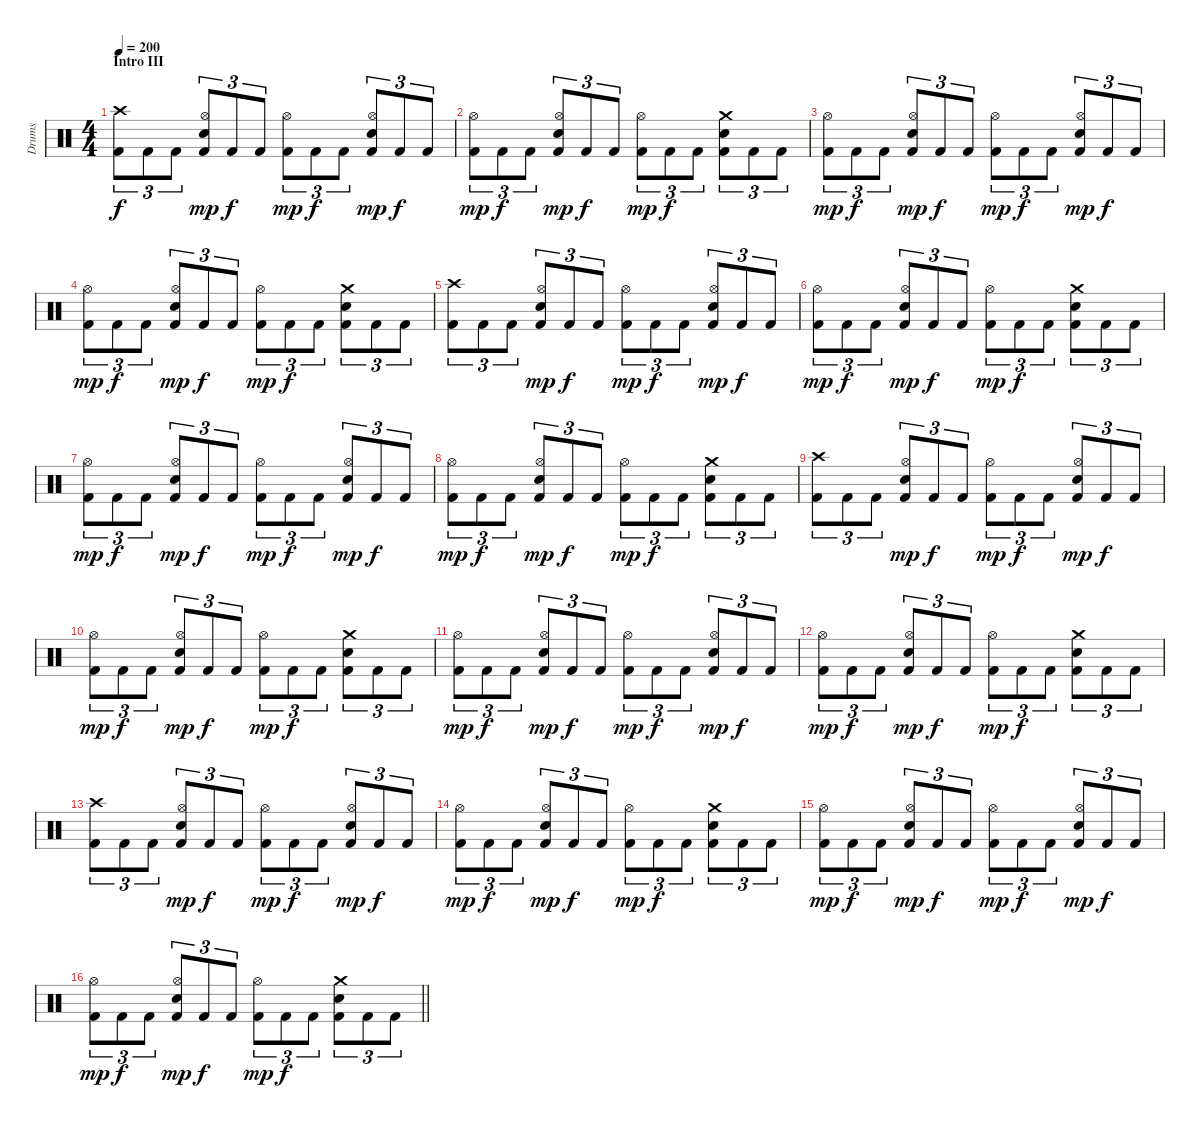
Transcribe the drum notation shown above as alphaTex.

\track ("Drums" "Drums") {instrument percussion}
\staff {score}
\articulation defaults
\ts (4 4)
\section ("" "Intro III")
\tempo 200
\clef neutral
\ks c
("Crash high (hit)" "Kick (hit) 2").8{tu (3 2) dy f} "Kick (hit) 2".8{tu (3 2)} "Kick (hit) 2".8{tu (3 2)} ("Hi-Hat (open)" "Snare (hit) 2" "Kick (hit) 2").8{tu (3 2) dy mp} "Kick (hit) 2".8{tu (3 2) dy f} "Kick (hit) 2".8{tu (3 2)} ("Hi-Hat (open)" "Kick (hit) 2").8{tu (3 2) dy mp} "Kick (hit) 2".8{tu (3 2) dy f} "Kick (hit) 2".8{tu (3 2)} ("Hi-Hat (open)" "Snare (hit) 2" "Kick (hit) 2").8{tu (3 2) dy mp} "Kick (hit) 2".8{tu (3 2) dy f} "Kick (hit) 2".8{tu (3 2)} |
("Hi-Hat (open)" "Kick (hit) 2").8{tu (3 2) dy mp} "Kick (hit) 2".8{tu (3 2) dy f} "Kick (hit) 2".8{tu (3 2)} ("Hi-Hat (open)" "Snare (hit) 2" "Kick (hit) 2").8{tu (3 2) dy mp} "Kick (hit) 2".8{tu (3 2) dy f} "Kick (hit) 2".8{tu (3 2)} ("Hi-Hat (open)" "Kick (hit) 2").8{tu (3 2) dy mp} "Kick (hit) 2".8{tu (3 2) dy f} "Kick (hit) 2".8{tu (3 2)} ("Crash medium (hit)" "Snare (hit) 2" "Kick (hit) 2").8{tu (3 2)} "Kick (hit) 2".8{tu (3 2)} "Kick (hit) 2".8{tu (3 2)} |
("Hi-Hat (open)" "Kick (hit) 2").8{tu (3 2) dy mp} "Kick (hit) 2".8{tu (3 2) dy f} "Kick (hit) 2".8{tu (3 2)} ("Hi-Hat (open)" "Snare (hit) 2" "Kick (hit) 2").8{tu (3 2) dy mp} "Kick (hit) 2".8{tu (3 2) dy f} "Kick (hit) 2".8{tu (3 2)} ("Hi-Hat (open)" "Kick (hit) 2").8{tu (3 2) dy mp} "Kick (hit) 2".8{tu (3 2) dy f} "Kick (hit) 2".8{tu (3 2)} ("Hi-Hat (open)" "Snare (hit) 2" "Kick (hit) 2").8{tu (3 2) dy mp} "Kick (hit) 2".8{tu (3 2) dy f} "Kick (hit) 2".8{tu (3 2)} |
("Hi-Hat (open)" "Kick (hit) 2").8{tu (3 2) dy mp} "Kick (hit) 2".8{tu (3 2) dy f} "Kick (hit) 2".8{tu (3 2)} ("Hi-Hat (open)" "Snare (hit) 2" "Kick (hit) 2").8{tu (3 2) dy mp} "Kick (hit) 2".8{tu (3 2) dy f} "Kick (hit) 2".8{tu (3 2)} ("Hi-Hat (open)" "Kick (hit) 2").8{tu (3 2) dy mp} "Kick (hit) 2".8{tu (3 2) dy f} "Kick (hit) 2".8{tu (3 2)} ("Crash medium (hit)" "Snare (hit) 2" "Kick (hit) 2").8{tu (3 2)} "Kick (hit) 2".8{tu (3 2)} "Kick (hit) 2".8{tu (3 2)} |
("Crash high (hit)" "Kick (hit) 2").8{tu (3 2)} "Kick (hit) 2".8{tu (3 2)} "Kick (hit) 2".8{tu (3 2)} ("Hi-Hat (open)" "Snare (hit) 2" "Kick (hit) 2").8{tu (3 2) dy mp} "Kick (hit) 2".8{tu (3 2) dy f} "Kick (hit) 2".8{tu (3 2)} ("Hi-Hat (open)" "Kick (hit) 2").8{tu (3 2) dy mp} "Kick (hit) 2".8{tu (3 2) dy f} "Kick (hit) 2".8{tu (3 2)} ("Hi-Hat (open)" "Snare (hit) 2" "Kick (hit) 2").8{tu (3 2) dy mp} "Kick (hit) 2".8{tu (3 2) dy f} "Kick (hit) 2".8{tu (3 2)} |
("Hi-Hat (open)" "Kick (hit) 2").8{tu (3 2) dy mp} "Kick (hit) 2".8{tu (3 2) dy f} "Kick (hit) 2".8{tu (3 2)} ("Hi-Hat (open)" "Snare (hit) 2" "Kick (hit) 2").8{tu (3 2) dy mp} "Kick (hit) 2".8{tu (3 2) dy f} "Kick (hit) 2".8{tu (3 2)} ("Hi-Hat (open)" "Kick (hit) 2").8{tu (3 2) dy mp} "Kick (hit) 2".8{tu (3 2) dy f} "Kick (hit) 2".8{tu (3 2)} ("Crash medium (hit)" "Snare (hit) 2" "Kick (hit) 2").8{tu (3 2)} "Kick (hit) 2".8{tu (3 2)} "Kick (hit) 2".8{tu (3 2)} |
("Hi-Hat (open)" "Kick (hit) 2").8{tu (3 2) dy mp} "Kick (hit) 2".8{tu (3 2) dy f} "Kick (hit) 2".8{tu (3 2)} ("Hi-Hat (open)" "Snare (hit) 2" "Kick (hit) 2").8{tu (3 2) dy mp} "Kick (hit) 2".8{tu (3 2) dy f} "Kick (hit) 2".8{tu (3 2)} ("Hi-Hat (open)" "Kick (hit) 2").8{tu (3 2) dy mp} "Kick (hit) 2".8{tu (3 2) dy f} "Kick (hit) 2".8{tu (3 2)} ("Hi-Hat (open)" "Snare (hit) 2" "Kick (hit) 2").8{tu (3 2) dy mp} "Kick (hit) 2".8{tu (3 2) dy f} "Kick (hit) 2".8{tu (3 2)} |
("Hi-Hat (open)" "Kick (hit) 2").8{tu (3 2) dy mp} "Kick (hit) 2".8{tu (3 2) dy f} "Kick (hit) 2".8{tu (3 2)} ("Hi-Hat (open)" "Snare (hit) 2" "Kick (hit) 2").8{tu (3 2) dy mp} "Kick (hit) 2".8{tu (3 2) dy f} "Kick (hit) 2".8{tu (3 2)} ("Hi-Hat (open)" "Kick (hit) 2").8{tu (3 2) dy mp} "Kick (hit) 2".8{tu (3 2) dy f} "Kick (hit) 2".8{tu (3 2)} ("Crash medium (hit)" "Snare (hit) 2" "Kick (hit) 2").8{tu (3 2)} "Kick (hit) 2".8{tu (3 2)} "Kick (hit) 2".8{tu (3 2)} |
("Crash high (hit)" "Kick (hit) 2").8{tu (3 2)} "Kick (hit) 2".8{tu (3 2)} "Kick (hit) 2".8{tu (3 2)} ("Hi-Hat (open)" "Snare (hit) 2" "Kick (hit) 2").8{tu (3 2) dy mp} "Kick (hit) 2".8{tu (3 2) dy f} "Kick (hit) 2".8{tu (3 2)} ("Hi-Hat (open)" "Kick (hit) 2").8{tu (3 2) dy mp} "Kick (hit) 2".8{tu (3 2) dy f} "Kick (hit) 2".8{tu (3 2)} ("Hi-Hat (open)" "Snare (hit) 2" "Kick (hit) 2").8{tu (3 2) dy mp} "Kick (hit) 2".8{tu (3 2) dy f} "Kick (hit) 2".8{tu (3 2)} |
("Hi-Hat (open)" "Kick (hit) 2").8{tu (3 2) dy mp} "Kick (hit) 2".8{tu (3 2) dy f} "Kick (hit) 2".8{tu (3 2)} ("Hi-Hat (open)" "Snare (hit) 2" "Kick (hit) 2").8{tu (3 2) dy mp} "Kick (hit) 2".8{tu (3 2) dy f} "Kick (hit) 2".8{tu (3 2)} ("Hi-Hat (open)" "Kick (hit) 2").8{tu (3 2) dy mp} "Kick (hit) 2".8{tu (3 2) dy f} "Kick (hit) 2".8{tu (3 2)} ("Crash medium (hit)" "Snare (hit) 2" "Kick (hit) 2").8{tu (3 2)} "Kick (hit) 2".8{tu (3 2)} "Kick (hit) 2".8{tu (3 2)} |
("Hi-Hat (open)" "Kick (hit) 2").8{tu (3 2) dy mp} "Kick (hit) 2".8{tu (3 2) dy f} "Kick (hit) 2".8{tu (3 2)} ("Hi-Hat (open)" "Snare (hit) 2" "Kick (hit) 2").8{tu (3 2) dy mp} "Kick (hit) 2".8{tu (3 2) dy f} "Kick (hit) 2".8{tu (3 2)} ("Hi-Hat (open)" "Kick (hit) 2").8{tu (3 2) dy mp} "Kick (hit) 2".8{tu (3 2) dy f} "Kick (hit) 2".8{tu (3 2)} ("Hi-Hat (open)" "Snare (hit) 2" "Kick (hit) 2").8{tu (3 2) dy mp} "Kick (hit) 2".8{tu (3 2) dy f} "Kick (hit) 2".8{tu (3 2)} |
("Hi-Hat (open)" "Kick (hit) 2").8{tu (3 2) dy mp} "Kick (hit) 2".8{tu (3 2) dy f} "Kick (hit) 2".8{tu (3 2)} ("Hi-Hat (open)" "Snare (hit) 2" "Kick (hit) 2").8{tu (3 2) dy mp} "Kick (hit) 2".8{tu (3 2) dy f} "Kick (hit) 2".8{tu (3 2)} ("Hi-Hat (open)" "Kick (hit) 2").8{tu (3 2) dy mp} "Kick (hit) 2".8{tu (3 2) dy f} "Kick (hit) 2".8{tu (3 2)} ("Crash medium (hit)" "Snare (hit) 2" "Kick (hit) 2").8{tu (3 2)} "Kick (hit) 2".8{tu (3 2)} "Kick (hit) 2".8{tu (3 2)} |
("Crash high (hit)" "Kick (hit) 2").8{tu (3 2)} "Kick (hit) 2".8{tu (3 2)} "Kick (hit) 2".8{tu (3 2)} ("Hi-Hat (open)" "Snare (hit) 2" "Kick (hit) 2").8{tu (3 2) dy mp} "Kick (hit) 2".8{tu (3 2) dy f} "Kick (hit) 2".8{tu (3 2)} ("Hi-Hat (open)" "Kick (hit) 2").8{tu (3 2) dy mp} "Kick (hit) 2".8{tu (3 2) dy f} "Kick (hit) 2".8{tu (3 2)} ("Hi-Hat (open)" "Snare (hit) 2" "Kick (hit) 2").8{tu (3 2) dy mp} "Kick (hit) 2".8{tu (3 2) dy f} "Kick (hit) 2".8{tu (3 2)} |
("Hi-Hat (open)" "Kick (hit) 2").8{tu (3 2) dy mp} "Kick (hit) 2".8{tu (3 2) dy f} "Kick (hit) 2".8{tu (3 2)} ("Hi-Hat (open)" "Snare (hit) 2" "Kick (hit) 2").8{tu (3 2) dy mp} "Kick (hit) 2".8{tu (3 2) dy f} "Kick (hit) 2".8{tu (3 2)} ("Hi-Hat (open)" "Kick (hit) 2").8{tu (3 2) dy mp} "Kick (hit) 2".8{tu (3 2) dy f} "Kick (hit) 2".8{tu (3 2)} ("Crash medium (hit)" "Snare (hit) 2" "Kick (hit) 2").8{tu (3 2)} "Kick (hit) 2".8{tu (3 2)} "Kick (hit) 2".8{tu (3 2)} |
("Hi-Hat (open)" "Kick (hit) 2").8{tu (3 2) dy mp} "Kick (hit) 2".8{tu (3 2) dy f} "Kick (hit) 2".8{tu (3 2)} ("Hi-Hat (open)" "Snare (hit) 2" "Kick (hit) 2").8{tu (3 2) dy mp} "Kick (hit) 2".8{tu (3 2) dy f} "Kick (hit) 2".8{tu (3 2)} ("Hi-Hat (open)" "Kick (hit) 2").8{tu (3 2) dy mp} "Kick (hit) 2".8{tu (3 2) dy f} "Kick (hit) 2".8{tu (3 2)} ("Hi-Hat (open)" "Snare (hit) 2" "Kick (hit) 2").8{tu (3 2) dy mp} "Kick (hit) 2".8{tu (3 2) dy f} "Kick (hit) 2".8{tu (3 2)} |
\barLineRight lightlight
("Hi-Hat (open)" "Kick (hit) 2").8{tu (3 2) dy mp} "Kick (hit) 2".8{tu (3 2) dy f} "Kick (hit) 2".8{tu (3 2)} ("Hi-Hat (open)" "Snare (hit) 2" "Kick (hit) 2").8{tu (3 2) dy mp} "Kick (hit) 2".8{tu (3 2) dy f} "Kick (hit) 2".8{tu (3 2)} ("Hi-Hat (open)" "Kick (hit) 2").8{tu (3 2) dy mp} "Kick (hit) 2".8{tu (3 2) dy f} "Kick (hit) 2".8{tu (3 2)} ("Crash medium (hit)" "Snare (hit) 2" "Kick (hit) 2").8{tu (3 2)} "Kick (hit) 2".8{tu (3 2)} "Kick (hit) 2".8{tu (3 2)}
